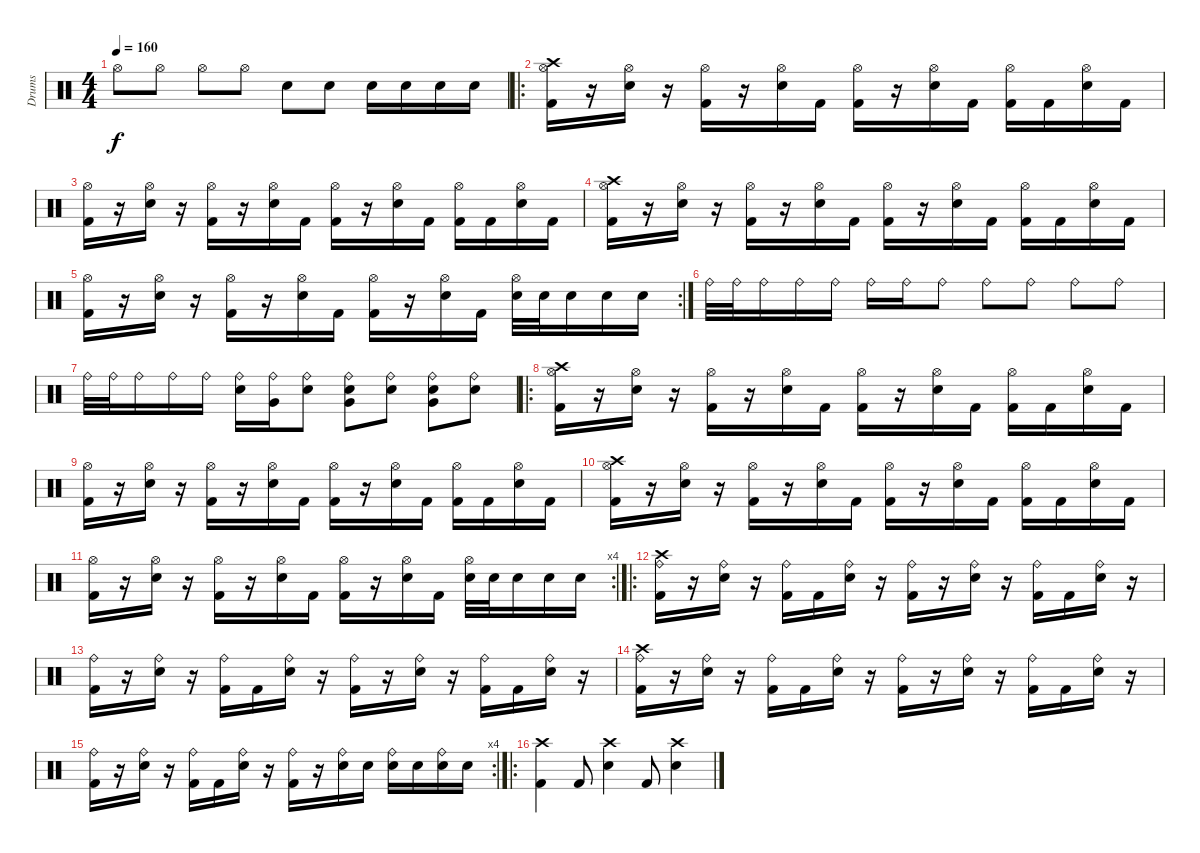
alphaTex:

\track ("Drums" "Drums") {instrument percussion}
\staff {score}
\articulation defaults
\ts (4 4)
\tempo 160
\clef neutral
\ks c "Hi-Hat (open)".8{dy f} "Hi-Hat (open)".8 "Hi-Hat (open)".8 "Hi-Hat (open)".8 "Snare (hit) 2".8 "Snare (hit) 2".8 "Snare (hit) 2".16 "Snare (hit) 2".16 "Snare (hit) 2".16 "Snare (hit) 2".16
|
\ro
("Hi-Hat (open)" "Kick (hit) 2" "Crash high (hit)").16 r.16 ("Hi-Hat (open)" "Snare (hit) 2").16 r.16 ("Hi-Hat (open)" "Kick (hit) 2").16 r.16 ("Hi-Hat (open)" "Snare (hit) 2").16 "Kick (hit) 2".16 ("Hi-Hat (open)" "Kick (hit) 2").16 r.16 ("Hi-Hat (open)" "Snare (hit) 2").16 "Kick (hit) 2".16 ("Hi-Hat (open)" "Kick (hit) 2").16 "Kick (hit) 2".16 ("Hi-Hat (open)" "Snare (hit) 2").16 "Kick (hit) 2".16 |
("Hi-Hat (open)" "Kick (hit) 2").16 r.16 ("Hi-Hat (open)" "Snare (hit) 2").16 r.16 ("Hi-Hat (open)" "Kick (hit) 2").16 r.16 ("Hi-Hat (open)" "Snare (hit) 2").16 "Kick (hit) 2".16 ("Hi-Hat (open)" "Kick (hit) 2").16 r.16 ("Hi-Hat (open)" "Snare (hit) 2").16 "Kick (hit) 2".16 ("Hi-Hat (open)" "Kick (hit) 2").16 "Kick (hit) 2".16 ("Hi-Hat (open)" "Snare (hit) 2").16 "Kick (hit) 2".16 |
("Hi-Hat (open)" "Kick (hit) 2" "Crash high (hit)").16 r.16 ("Hi-Hat (open)" "Snare (hit) 2").16 r.16 ("Hi-Hat (open)" "Kick (hit) 2").16 r.16 ("Hi-Hat (open)" "Snare (hit) 2").16 "Kick (hit) 2".16 ("Hi-Hat (open)" "Kick (hit) 2").16 r.16 ("Hi-Hat (open)" "Snare (hit) 2").16 "Kick (hit) 2".16 ("Hi-Hat (open)" "Kick (hit) 2").16 "Kick (hit) 2".16 ("Hi-Hat (open)" "Snare (hit) 2").16 "Kick (hit) 2".16 |
\rc 2
("Hi-Hat (open)" "Kick (hit) 2").16 r.16 ("Hi-Hat (open)" "Snare (hit) 2").16 r.16 ("Hi-Hat (open)" "Kick (hit) 2").16 r.16 ("Hi-Hat (open)" "Snare (hit) 2").16 "Kick (hit) 2".16 ("Hi-Hat (open)" "Kick (hit) 2").16 r.16 ("Hi-Hat (open)" "Snare (hit) 2").16 "Kick (hit) 2".16 ("Hi-Hat (open)" "Snare (hit) 2").32 "Snare (hit) 2".32 "Snare (hit) 2".16 "Snare (hit) 2".16 "Snare (hit) 2".16 |
"Ride (bell)".32 "Ride (bell)".32 "Ride (bell)".16 "Ride (bell)".16 "Ride (bell)".16 "Ride (bell)".16 "Ride (bell)".16 "Ride (bell)".8 "Ride (bell)".8 "Ride (bell)".8 "Ride (bell)".8 "Ride (bell)".8 |
"Ride (bell)".32 "Ride (bell)".32 "Ride (bell)".16 "Ride (bell)".16 "Ride (bell)".16 ("Ride (bell)" "Snare (hit) 2").16 ("Ride (bell)" "Very Low Tom (hit)").16 ("Ride (bell)" "Snare (hit) 2").8 ("Ride (bell)" "Snare (hit) 2" "Very Low Tom (hit)").8 ("Ride (bell)" "Snare (hit) 2").8 ("Ride (bell)" "Snare (hit) 2" "Very Low Tom (hit)").8 ("Ride (bell)" "Snare (hit) 2").8 |
\ro
("Hi-Hat (open)" "Kick (hit) 2" "Crash high (hit)").16 r.16 ("Hi-Hat (open)" "Snare (hit) 2").16 r.16 ("Hi-Hat (open)" "Kick (hit) 2").16 r.16 ("Hi-Hat (open)" "Snare (hit) 2").16 "Kick (hit) 2".16 ("Hi-Hat (open)" "Kick (hit) 2").16 r.16 ("Hi-Hat (open)" "Snare (hit) 2").16 "Kick (hit) 2".16 ("Hi-Hat (open)" "Kick (hit) 2").16 "Kick (hit) 2".16 ("Hi-Hat (open)" "Snare (hit) 2").16 "Kick (hit) 2".16 |
("Hi-Hat (open)" "Kick (hit) 2").16 r.16 ("Hi-Hat (open)" "Snare (hit) 2").16 r.16 ("Hi-Hat (open)" "Kick (hit) 2").16 r.16 ("Hi-Hat (open)" "Snare (hit) 2").16 "Kick (hit) 2".16 ("Hi-Hat (open)" "Kick (hit) 2").16 r.16 ("Hi-Hat (open)" "Snare (hit) 2").16 "Kick (hit) 2".16 ("Hi-Hat (open)" "Kick (hit) 2").16 "Kick (hit) 2".16 ("Hi-Hat (open)" "Snare (hit) 2").16 "Kick (hit) 2".16 |
("Hi-Hat (open)" "Kick (hit) 2" "Crash high (hit)").16 r.16 ("Hi-Hat (open)" "Snare (hit) 2").16 r.16 ("Hi-Hat (open)" "Kick (hit) 2").16 r.16 ("Hi-Hat (open)" "Snare (hit) 2").16 "Kick (hit) 2".16 ("Hi-Hat (open)" "Kick (hit) 2").16 r.16 ("Hi-Hat (open)" "Snare (hit) 2").16 "Kick (hit) 2".16 ("Hi-Hat (open)" "Kick (hit) 2").16 "Kick (hit) 2".16 ("Hi-Hat (open)" "Snare (hit) 2").16 "Kick (hit) 2".16 |
\rc 4
("Hi-Hat (open)" "Kick (hit) 2").16 r.16 ("Hi-Hat (open)" "Snare (hit) 2").16 r.16 ("Hi-Hat (open)" "Kick (hit) 2").16 r.16 ("Hi-Hat (open)" "Snare (hit) 2").16 "Kick (hit) 2".16 ("Hi-Hat (open)" "Kick (hit) 2").16 r.16 ("Hi-Hat (open)" "Snare (hit) 2").16 "Kick (hit) 2".16 ("Hi-Hat (open)" "Snare (hit) 2").32 "Snare (hit) 2".32 "Snare (hit) 2".16 "Snare (hit) 2".16 "Snare (hit) 2".16 |
\ro
("Ride (bell)" "Kick (hit) 2" "Crash high (hit)").16 r.16 ("Ride (bell)" "Snare (hit) 2").16 r.16 ("Ride (bell)" "Kick (hit) 2").16 "Kick (hit) 2".16 ("Ride (bell)" "Snare (hit) 2").16 r.16 ("Ride (bell)" "Kick (hit) 2").16 r.16 ("Ride (bell)" "Snare (hit) 2").16 r.16 ("Ride (bell)" "Kick (hit) 2").16 "Kick (hit) 2".16 ("Ride (bell)" "Snare (hit) 2").16 r.16 |
("Ride (bell)" "Kick (hit) 2").16 r.16 ("Ride (bell)" "Snare (hit) 2").16 r.16 ("Ride (bell)" "Kick (hit) 2").16 "Kick (hit) 2".16 ("Ride (bell)" "Snare (hit) 2").16 r.16 ("Ride (bell)" "Kick (hit) 2").16 r.16 ("Ride (bell)" "Snare (hit) 2").16 r.16 ("Ride (bell)" "Kick (hit) 2").16 "Kick (hit) 2".16 ("Ride (bell)" "Snare (hit) 2").16 r.16 |
("Ride (bell)" "Kick (hit) 2" "Crash high (hit)").16 r.16 ("Ride (bell)" "Snare (hit) 2").16 r.16 ("Ride (bell)" "Kick (hit) 2").16 "Kick (hit) 2".16 ("Ride (bell)" "Snare (hit) 2").16 r.16 ("Ride (bell)" "Kick (hit) 2").16 r.16 ("Ride (bell)" "Snare (hit) 2").16 r.16 ("Ride (bell)" "Kick (hit) 2").16 "Kick (hit) 2".16 ("Ride (bell)" "Snare (hit) 2").16 r.16 |
\rc 4
("Ride (bell)" "Kick (hit) 2").16 r.16 ("Ride (bell)" "Snare (hit) 2").16 r.16 ("Ride (bell)" "Kick (hit) 2").16 "Kick (hit) 2".16 ("Ride (bell)" "Snare (hit) 2").16 r.16 ("Ride (bell)" "Kick (hit) 2").16 r.16 ("Ride (bell)" "Snare (hit) 2").16 "Snare (hit) 2".16 ("Ride (bell)" "Snare (hit) 2").16 "Snare (hit) 2".16 ("Ride (bell)" "Snare (hit) 2").16 "Snare (hit) 2".16 |
\ro
("Kick (hit) 2" "Crash high (hit)").4 "Kick (hit) 2".8 ("Snare (hit) 2" "Crash high (hit)").4 "Kick (hit) 2".8 ("Snare (hit) 2" "Crash high (hit)").4
